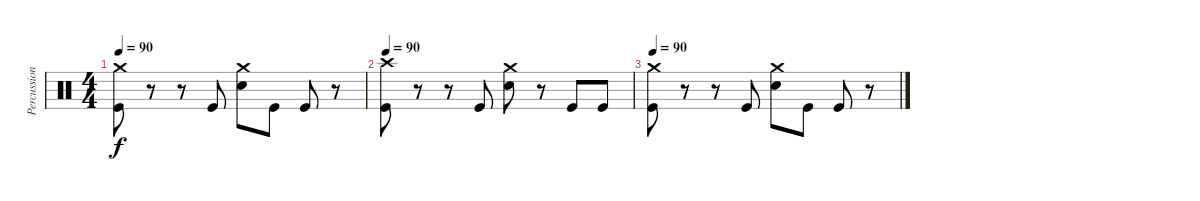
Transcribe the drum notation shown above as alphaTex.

\track ("Percussion" "Percussion") {instrument percussion}
\staff {score}
\articulation defaults
\ts (4 4)
\tempo 90
\clef neutral
\ks c
("Crash medium (hit)" "Kick (hit)").8{dy f} r.8 r.8 "Kick (hit)".8 ("Crash medium (hit)" "Snare (hit) 2").8 "Kick (hit)".8 "Kick (hit)".8 r.8 |
\tempo 90
("Crash high (hit)" "Kick (hit)").8 r.8 r.8 "Kick (hit)".8 ("Crash medium (hit)" "Snare (hit) 2").8 r.8 "Kick (hit)".8 "Kick (hit)".8 |
\tempo 90
("Crash medium (hit)" "Kick (hit)").8 r.8 r.8 "Kick (hit)".8 ("Crash medium (hit)" "Snare (hit) 2").8 "Kick (hit)".8 "Kick (hit)".8 r.8
